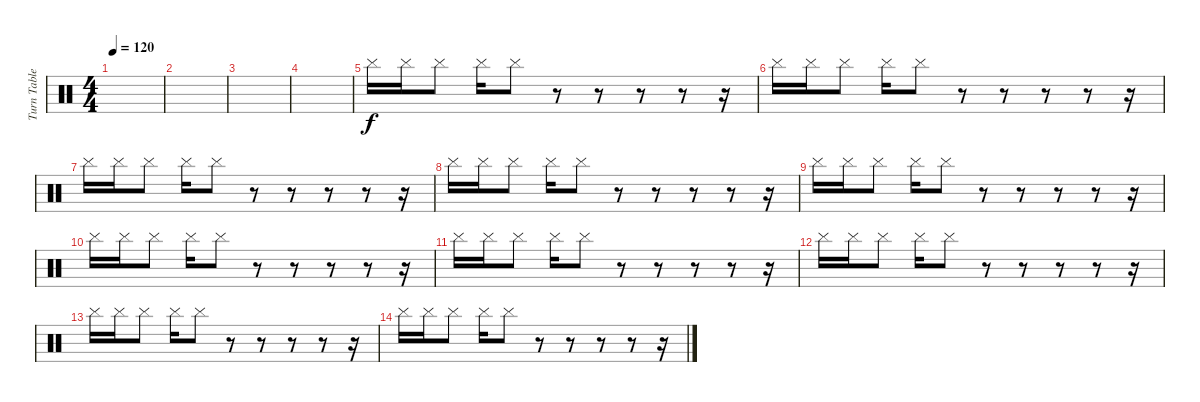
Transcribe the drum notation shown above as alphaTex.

\track ("Turn Tables" "Turn Table") {instrument percussion}
\staff {score}
\articulation defaults
\ts (4 4)
\tempo 120
\clef neutral
\ks c
|
|
|
|
"Cymbal (hit)".16 "Cymbal (hit)".16 "Cymbal (hit)".8 "Cymbal (hit)".16 "Cymbal (hit)".8 r.8 r.8 r.8 r.8 r.16 |
"Cymbal (hit)".16 "Cymbal (hit)".16 "Cymbal (hit)".8 "Cymbal (hit)".16 "Cymbal (hit)".8 r.8 r.8 r.8 r.8 r.16 |
"Cymbal (hit)".16 "Cymbal (hit)".16 "Cymbal (hit)".8 "Cymbal (hit)".16 "Cymbal (hit)".8 r.8 r.8 r.8 r.8 r.16 |
"Cymbal (hit)".16 "Cymbal (hit)".16 "Cymbal (hit)".8 "Cymbal (hit)".16 "Cymbal (hit)".8 r.8 r.8 r.8 r.8 r.16 |
"Cymbal (hit)".16 "Cymbal (hit)".16 "Cymbal (hit)".8 "Cymbal (hit)".16 "Cymbal (hit)".8 r.8 r.8 r.8 r.8 r.16 |
"Cymbal (hit)".16 "Cymbal (hit)".16 "Cymbal (hit)".8 "Cymbal (hit)".16 "Cymbal (hit)".8 r.8 r.8 r.8 r.8 r.16 |
"Cymbal (hit)".16 "Cymbal (hit)".16 "Cymbal (hit)".8 "Cymbal (hit)".16 "Cymbal (hit)".8 r.8 r.8 r.8 r.8 r.16 |
"Cymbal (hit)".16 "Cymbal (hit)".16 "Cymbal (hit)".8 "Cymbal (hit)".16 "Cymbal (hit)".8 r.8 r.8 r.8 r.8 r.16 |
"Cymbal (hit)".16 "Cymbal (hit)".16 "Cymbal (hit)".8 "Cymbal (hit)".16 "Cymbal (hit)".8 r.8 r.8 r.8 r.8 r.16 |
"Cymbal (hit)".16 "Cymbal (hit)".16 "Cymbal (hit)".8 "Cymbal (hit)".16 "Cymbal (hit)".8 r.8 r.8 r.8 r.8 r.16
